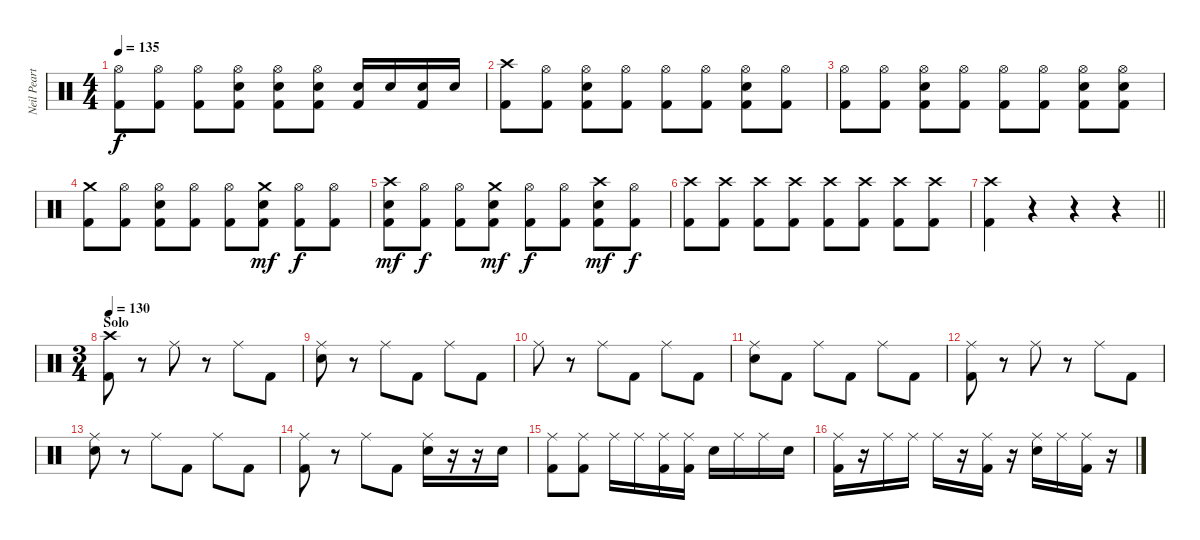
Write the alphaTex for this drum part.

\track ("Neil Peart" "Neil Peart") {instrument percussion}
\staff {score}
\articulation defaults
\ts (4 4)
\tempo 135
\clef neutral
\ks c
("Hi-Hat (open)" "Kick (hit) 2").8{dy f} ("Hi-Hat (open)" "Kick (hit) 2").8 ("Hi-Hat (open)" "Kick (hit) 2").8 ("Hi-Hat (open)" "Snare (hit) 2" "Kick (hit) 2").8 ("Hi-Hat (open)" "Snare (hit) 2" "Kick (hit) 2").8 ("Hi-Hat (open)" "Snare (hit) 2" "Kick (hit) 2").8 ("Snare (hit) 2" "Kick (hit) 2").16 "Snare (hit) 2".16 ("Snare (hit) 2" "Kick (hit) 2").16 "Snare (hit) 2".16 |
("Crash high (hit)" "Kick (hit) 2").8 ("Hi-Hat (open)" "Kick (hit) 2").8 ("Hi-Hat (open)" "Snare (hit) 2" "Kick (hit) 2").8 ("Hi-Hat (open)" "Kick (hit) 2").8 ("Hi-Hat (open)" "Kick (hit) 2").8 ("Hi-Hat (open)" "Kick (hit) 2").8 ("Hi-Hat (open)" "Snare (hit) 2" "Kick (hit) 2").8 ("Hi-Hat (open)" "Kick (hit) 2").8 |
("Hi-Hat (open)" "Kick (hit) 2").8 ("Hi-Hat (open)" "Kick (hit) 2").8 ("Hi-Hat (open)" "Snare (hit) 2" "Kick (hit) 2").8 ("Hi-Hat (open)" "Kick (hit) 2").8 ("Hi-Hat (open)" "Kick (hit) 2").8 ("Hi-Hat (open)" "Kick (hit) 2").8 ("Hi-Hat (open)" "Snare (hit) 2" "Kick (hit) 2").8 ("Hi-Hat (open)" "Snare (hit) 2" "Kick (hit) 2").8 |
("Crash medium (hit)" "Kick (hit) 2").8 ("Hi-Hat (open)" "Kick (hit) 2").8 ("Hi-Hat (open)" "Snare (hit) 2" "Kick (hit) 2").8 ("Hi-Hat (open)" "Kick (hit) 2").8 ("Hi-Hat (open)" "Kick (hit) 2").8 ("Crash medium (hit)" "Snare (hit) 2" "Kick (hit) 2").8{dy mf} ("Hi-Hat (open)" "Kick (hit) 2").8{dy f} ("Hi-Hat (open)" "Kick (hit) 2").8 |
("Crash high (hit)" "Snare (hit) 2" "Kick (hit) 2").8{dy mf} ("Hi-Hat (open)" "Kick (hit) 2").8{dy f} ("Hi-Hat (open)" "Kick (hit) 2").8 ("Crash medium (hit)" "Snare (hit) 2" "Kick (hit) 2").8{dy mf} ("Hi-Hat (open)" "Kick (hit) 2").8{dy f} ("Hi-Hat (open)" "Kick (hit) 2").8 ("Crash high (hit)" "Snare (hit) 2" "Kick (hit) 2").8{dy mf} ("Hi-Hat (open)" "Kick (hit) 2").8{dy f} |
("Crash high (hit)" "Kick (hit) 2").8 ("Crash high (hit)" "Kick (hit) 2").8 ("Crash high (hit)" "Kick (hit) 2").8 ("Crash high (hit)" "Kick (hit) 2").8 ("Crash high (hit)" "Kick (hit) 2").8 ("Crash high (hit)" "Kick (hit) 2").8 ("Crash high (hit)" "Kick (hit) 2").8 ("Crash high (hit)" "Kick (hit) 2").8 |
\barLineRight lightlight
("Crash high (hit)" "Kick (hit) 2").4 r.4 r.4 r.4 |
\ts (3 4)
\section ("" "Solo")
\tempo 130
("Crash high (hit)" "Kick (hit) 2").8 r.8 "Ride (middle)".8 r.8 "Ride (middle)".8 "Kick (hit) 2".8 |
("Ride (middle)" "Snare (hit) 2").8 r.8 "Ride (middle)".8 "Kick (hit) 2".8 "Ride (middle)".8 "Kick (hit) 2".8 |
"Ride (middle)".8 r.8 "Ride (middle)".8 "Kick (hit) 2".8 "Ride (middle)".8 "Kick (hit) 2".8 |
("Ride (middle)" "Snare (hit) 2").8 "Kick (hit) 2".8 "Ride (middle)".8 "Kick (hit) 2".8 "Ride (middle)".8 "Kick (hit) 2".8 |
("Ride (middle)" "Kick (hit) 2").8 r.8 "Ride (middle)".8 r.8 "Ride (middle)".8 "Kick (hit) 2".8 |
("Ride (middle)" "Snare (hit) 2").8 r.8 "Ride (middle)".8 "Kick (hit) 2".8 "Ride (middle)".8 "Kick (hit) 2".8 |
("Ride (middle)" "Kick (hit) 2").8 r.8 "Ride (middle)".8 "Kick (hit) 2".8 ("Ride (middle)" "Snare (hit) 2").16 r.16 r.16 "Snare (hit) 2".16 |
("Ride (middle)" "Kick (hit) 2").8 ("Ride (middle)" "Kick (hit) 2").8 "Ride (middle)".16 "Ride (middle)".16 ("Ride (middle)" "Kick (hit) 2").16 ("Ride (middle)" "Kick (hit) 2").16 "Snare (hit) 2".16 "Ride (middle)".16 "Ride (middle)".16 "Snare (hit) 2".16 |
("Ride (middle)" "Kick (hit) 2").16 r.16 "Ride (middle)".16 "Ride (middle)".16 "Ride (middle)".16 r.16 ("Ride (middle)" "Kick (hit) 2").16 r.16 ("Ride (middle)" "Snare (hit) 2").16 "Ride (middle)".16 ("Ride (middle)" "Kick (hit) 2").16 r.16
